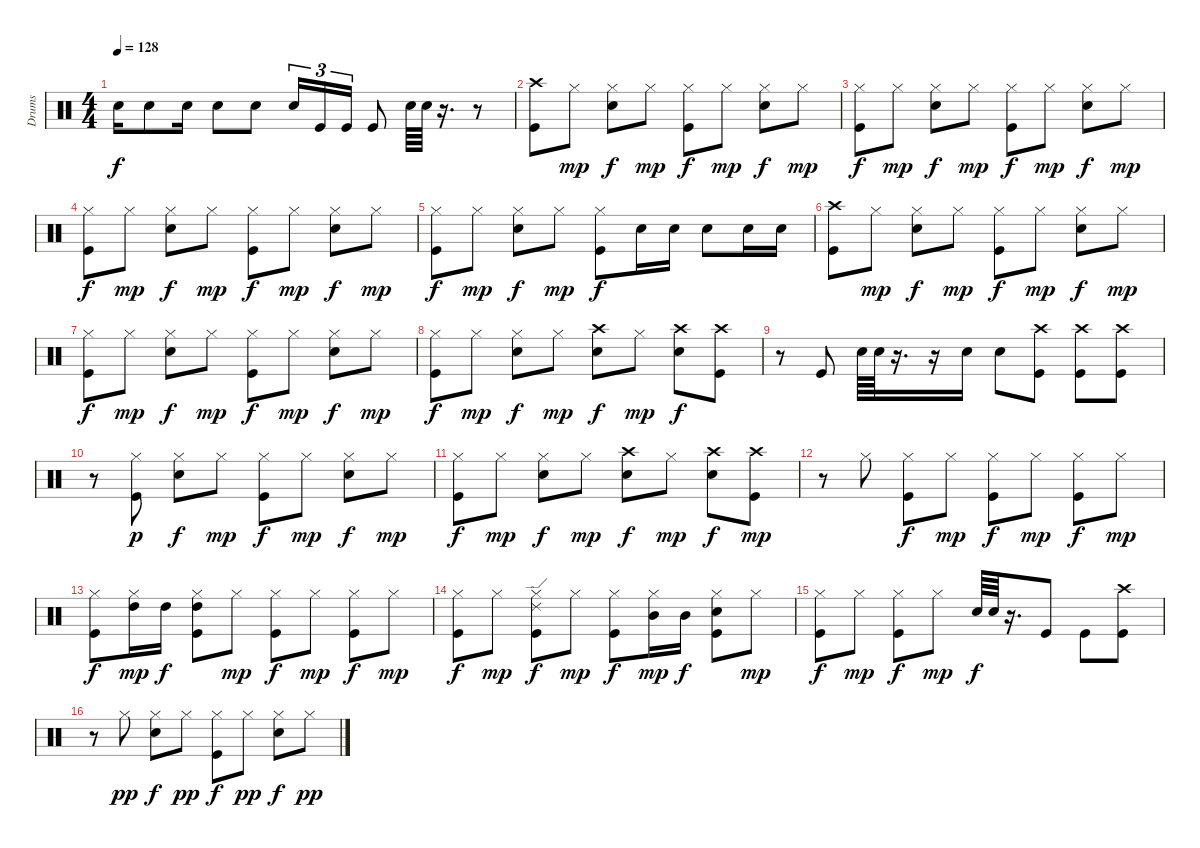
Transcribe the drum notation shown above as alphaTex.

\track ("Drums" "Drums") {instrument percussion}
\staff {score}
\articulation defaults
\ts (4 4)
\tempo 128
\clef neutral
\ks c "Snare (hit) 2".16{dy f} "Snare (hit) 2".8 "Snare (hit) 2".16 "Snare (hit) 2".8 "Snare (hit) 2".8 "Snare (hit) 2".16{tu (3 2)} "Kick (hit)".16{tu (3 2)} "Kick (hit)".16{tu (3 2)} "Kick (hit)".8 "Snare (hit) 2".64 "Snare (hit) 2".64
r.16{d} r.8 |
("Crash high (hit)" "Kick (hit)").8 "Hi-Hat (closed)".8{dy mp} ("Hi-Hat (closed)" "Snare (hit) 2").8{dy f} "Hi-Hat (closed)".8{dy mp} ("Hi-Hat (closed)" "Kick (hit)").8{dy f} "Hi-Hat (closed)".8{dy mp} ("Hi-Hat (closed)" "Snare (hit) 2").8{dy f} "Hi-Hat (closed)".8{dy mp} |
("Hi-Hat (closed)" "Kick (hit)").8{dy f} "Hi-Hat (closed)".8{dy mp} ("Hi-Hat (closed)" "Snare (hit) 2").8{dy f} "Hi-Hat (closed)".8{dy mp} ("Hi-Hat (closed)" "Kick (hit)").8{dy f} "Hi-Hat (closed)".8{dy mp} ("Hi-Hat (closed)" "Snare (hit) 2").8{dy f} "Hi-Hat (closed)".8{dy mp} |
("Hi-Hat (closed)" "Kick (hit)").8{dy f} "Hi-Hat (closed)".8{dy mp} ("Hi-Hat (closed)" "Snare (hit) 2").8{dy f} "Hi-Hat (closed)".8{dy mp} ("Hi-Hat (closed)" "Kick (hit)").8{dy f} "Hi-Hat (closed)".8{dy mp} ("Hi-Hat (closed)" "Snare (hit) 2").8{dy f} "Hi-Hat (closed)".8{dy mp} |
("Hi-Hat (closed)" "Kick (hit)").8{dy f} "Hi-Hat (closed)".8{dy mp} ("Hi-Hat (closed)" "Snare (hit) 2").8{dy f} "Hi-Hat (closed)".8{dy mp} ("Hi-Hat (closed)" "Kick (hit)").8{dy f} "Snare (hit) 2".16 "Snare (hit) 2".16 "Snare (hit) 2".8 "Snare (hit) 2".16 "Snare (hit) 2".16 |
("Crash high (hit)" "Kick (hit)").8 "Hi-Hat (closed)".8{dy mp} ("Hi-Hat (closed)" "Snare (hit) 2").8{dy f} "Hi-Hat (closed)".8{dy mp} ("Hi-Hat (closed)" "Kick (hit)").8{dy f} "Hi-Hat (closed)".8{dy mp} ("Hi-Hat (closed)" "Snare (hit) 2").8{dy f} "Hi-Hat (closed)".8{dy mp} |
("Hi-Hat (closed)" "Kick (hit)").8{dy f} "Hi-Hat (closed)".8{dy mp} ("Hi-Hat (closed)" "Snare (hit) 2").8{dy f} "Hi-Hat (closed)".8{dy mp} ("Hi-Hat (closed)" "Kick (hit)").8{dy f} "Hi-Hat (closed)".8{dy mp} ("Hi-Hat (closed)" "Snare (hit) 2").8{dy f} "Hi-Hat (closed)".8{dy mp} |
("Hi-Hat (closed)" "Kick (hit)").8{dy f} "Hi-Hat (closed)".8{dy mp} ("Hi-Hat (closed)" "Snare (hit) 2").8{dy f} "Hi-Hat (closed)".8{dy mp} ("Crash high (hit)" "Snare (hit) 2").8{dy f} "Hi-Hat (closed)".8{dy mp} ("Crash high (hit)" "Snare (hit) 2").8{dy f} ("Crash high (hit)" "Kick (hit)").8 |
r.8 "Kick (hit)".8 "Snare (hit) 2".64 "Snare (hit) 2".64 r.16{d} r.16 "Snare (hit) 2".16 "Snare (hit) 2".8 ("Crash high (hit)" "Kick (hit)").8 ("Crash high (hit)" "Kick (hit)").8 ("Crash high (hit)" "Kick (hit)").8 |
r.8 ("Hi-Hat (closed)" "Kick (hit)").8{dy p} ("Hi-Hat (closed)" "Snare (hit) 2").8{dy f} "Hi-Hat (closed)".8{dy mp} ("Hi-Hat (closed)" "Kick (hit)").8{dy f} "Hi-Hat (closed)".8{dy mp} ("Hi-Hat (closed)" "Snare (hit) 2").8{dy f} "Hi-Hat (closed)".8{dy mp} |
("Hi-Hat (closed)" "Kick (hit)").8{dy f} "Hi-Hat (closed)".8{dy mp} ("Hi-Hat (closed)" "Snare (hit) 2").8{dy f} "Hi-Hat (closed)".8{dy mp} ("Crash high (hit)" "Snare (hit) 2").8{dy f} "Hi-Hat (closed)".8{dy mp} ("Crash high (hit)" "Snare (hit) 2").8{dy f} ("Crash high (hit)" "Kick (hit)").8{dy mp} |
r.8 "Hi-Hat (closed)".8 ("Hi-Hat (closed)" "Kick (hit)").8{dy f} "Hi-Hat (closed)".8{dy mp} ("Hi-Hat (closed)" "Kick (hit)").8{dy f} "Hi-Hat (closed)".8{dy mp} ("Hi-Hat (closed)" "Kick (hit)").8{dy f} "Hi-Hat (closed)".8{dy mp} |
("Hi-Hat (closed)" "Kick (hit)").8{dy f} ("Hi-Hat (closed)" "High Tom (hit)").16{dy mp} "High Tom (hit)".16{dy f} ("Hi-Hat (closed)" "Kick (hit)" "High Tom (hit)").8 "Hi-Hat (closed)".8{dy mp} ("Hi-Hat (closed)" "Kick (hit)").8{dy f} "Hi-Hat (closed)".8{dy mp} ("Hi-Hat (closed)" "Kick (hit)").8{dy f} "Hi-Hat (closed)".8{dy mp} |
("Hi-Hat (closed)" "Kick (hit)").8{dy f} "Hi-Hat (closed)".8{dy mp} ("Hi-Hat (closed)" "Kick (hit)" "Ride (edge) 2").8{dy f} "Hi-Hat (closed)".8{dy mp} ("Hi-Hat (closed)" "Kick (hit)").8{dy f} ("Hi-Hat (closed)" "Mid Tom (hit)").16{dy mp} "Mid Tom (hit)".16{dy f} ("Hi-Hat (closed)" "Kick (hit)" "Snare (hit)").8 "Hi-Hat (closed)".8{dy mp} |
("Hi-Hat (closed)" "Kick (hit)").8{dy f} "Hi-Hat (closed)".8{dy mp} ("Hi-Hat (closed)" "Kick (hit)").8{dy f} "Hi-Hat (closed)".8{dy mp} "Snare (hit) 2".64{dy f} "Snare (hit) 2".64 r.16{d} "Kick (hit)".8 "Kick (hit)".8 ("Crash high (hit)" "Kick (hit)").8 |
r.8 "Hi-Hat (closed)".8{dy pp} ("Hi-Hat (closed)" "Snare (hit) 2").8{dy f} "Hi-Hat (closed)".8{dy pp} ("Hi-Hat (closed)" "Kick (hit)").8{dy f} "Hi-Hat (closed)".8{dy pp} ("Hi-Hat (closed)" "Snare (hit) 2").8{dy f} "Hi-Hat (closed)".8{dy pp}
